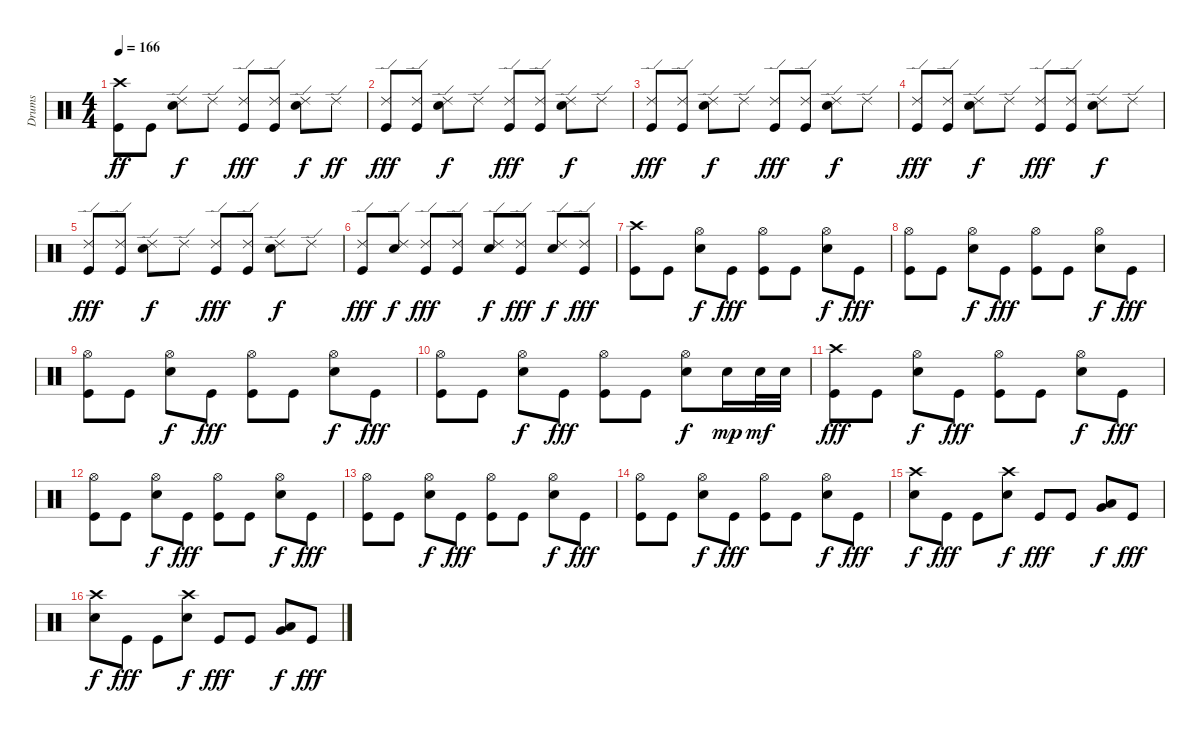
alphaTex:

\track ("Drums" "Drums") {instrument percussion}
\staff {score}
\articulation defaults
\ts (4 4)
\tempo 166
\clef neutral
\ks c
("Crash high (hit)" "Kick (hit)").8{dy ff} "Kick (hit)".8 ("Ride (edge) 2" "Snare (hit) 2").8{dy f} "Ride (edge) 2".8 ("Ride (edge) 2" "Kick (hit)").8{dy fff} ("Ride (edge) 2" "Kick (hit)").8 ("Ride (edge) 2" "Snare (hit) 2").8{dy f} "Ride (edge) 2".8{dy ff} |
("Ride (edge) 2" "Kick (hit)").8{dy fff} ("Ride (edge) 2" "Kick (hit)").8 ("Ride (edge) 2" "Snare (hit) 2").8{dy f} "Ride (edge) 2".8 ("Ride (edge) 2" "Kick (hit)").8{dy fff} ("Ride (edge) 2" "Kick (hit)").8 ("Ride (edge) 2" "Snare (hit) 2").8{dy f} "Ride (edge) 2".8 |
("Ride (edge) 2" "Kick (hit)").8{dy fff} ("Ride (edge) 2" "Kick (hit)").8 ("Ride (edge) 2" "Snare (hit) 2").8{dy f} "Ride (edge) 2".8 ("Ride (edge) 2" "Kick (hit)").8{dy fff} ("Ride (edge) 2" "Kick (hit)").8 ("Ride (edge) 2" "Snare (hit) 2").8{dy f} "Ride (edge) 2".8 |
("Ride (edge) 2" "Kick (hit)").8{dy fff} ("Ride (edge) 2" "Kick (hit)").8 ("Ride (edge) 2" "Snare (hit) 2").8{dy f} "Ride (edge) 2".8 ("Ride (edge) 2" "Kick (hit)").8{dy fff} ("Ride (edge) 2" "Kick (hit)").8 ("Ride (edge) 2" "Snare (hit) 2").8{dy f} "Ride (edge) 2".8 |
("Ride (edge) 2" "Kick (hit)").8{dy fff} ("Ride (edge) 2" "Kick (hit)").8 ("Ride (edge) 2" "Snare (hit) 2").8{dy f} "Ride (edge) 2".8 ("Ride (edge) 2" "Kick (hit)").8{dy fff} ("Ride (edge) 2" "Kick (hit)").8 ("Ride (edge) 2" "Snare (hit) 2").8{dy f} "Ride (edge) 2".8 |
("Ride (edge) 2" "Kick (hit)").8{dy fff} ("Ride (edge) 2" "Snare (hit) 2").8{dy f} ("Ride (edge) 2" "Kick (hit)").8{dy fff} ("Ride (edge) 2" "Kick (hit)").8 ("Ride (edge) 2" "Snare (hit) 2").8{dy f} ("Ride (edge) 2" "Kick (hit)").8{dy fff} ("Ride (edge) 2" "Snare (hit) 2").8{dy f} ("Ride (edge) 2" "Kick (hit)").8{dy fff} |
("Crash high (hit)" "Kick (hit)").8 "Kick (hit)".8 ("Hi-Hat (open)" "Snare (hit) 2").8{dy f} "Kick (hit)".8{dy fff} ("Hi-Hat (open)" "Kick (hit)").8 "Kick (hit)".8 ("Hi-Hat (open)" "Snare (hit) 2").8{dy f} "Kick (hit)".8{dy fff} |
("Hi-Hat (open)" "Kick (hit)").8 "Kick (hit)".8 ("Hi-Hat (open)" "Snare (hit) 2").8{dy f} "Kick (hit)".8{dy fff} ("Hi-Hat (open)" "Kick (hit)").8 "Kick (hit)".8 ("Hi-Hat (open)" "Snare (hit) 2").8{dy f} "Kick (hit)".8{dy fff} |
("Hi-Hat (open)" "Kick (hit)").8 "Kick (hit)".8 ("Hi-Hat (open)" "Snare (hit) 2").8{dy f} "Kick (hit)".8{dy fff} ("Hi-Hat (open)" "Kick (hit)").8 "Kick (hit)".8 ("Hi-Hat (open)" "Snare (hit) 2").8{dy f} "Kick (hit)".8{dy fff} |
("Hi-Hat (open)" "Kick (hit)").8 "Kick (hit)".8 ("Hi-Hat (open)" "Snare (hit) 2").8{dy f} "Kick (hit)".8{dy fff} ("Hi-Hat (open)" "Kick (hit)").8 "Kick (hit)".8 ("Hi-Hat (open)" "Snare (hit) 2").8{dy f} "Snare (hit) 2".16{dy mp} "Snare (hit) 2".32{dy mf} "Snare (hit) 2".32 |
("Crash high (hit)" "Kick (hit)").8{dy fff} "Kick (hit)".8 ("Hi-Hat (open)" "Snare (hit) 2").8{dy f} "Kick (hit)".8{dy fff} ("Hi-Hat (open)" "Kick (hit)").8 "Kick (hit)".8 ("Hi-Hat (open)" "Snare (hit) 2").8{dy f} "Kick (hit)".8{dy fff} |
("Hi-Hat (open)" "Kick (hit)").8 "Kick (hit)".8 ("Hi-Hat (open)" "Snare (hit) 2").8{dy f} "Kick (hit)".8{dy fff} ("Hi-Hat (open)" "Kick (hit)").8 "Kick (hit)".8 ("Hi-Hat (open)" "Snare (hit) 2").8{dy f} "Kick (hit)".8{dy fff} |
("Hi-Hat (open)" "Kick (hit)").8 "Kick (hit)".8 ("Hi-Hat (open)" "Snare (hit) 2").8{dy f} "Kick (hit)".8{dy fff} ("Hi-Hat (open)" "Kick (hit)").8 "Kick (hit)".8 ("Hi-Hat (open)" "Snare (hit) 2").8{dy f} "Kick (hit)".8{dy fff} |
("Hi-Hat (open)" "Kick (hit)").8 "Kick (hit)".8 ("Hi-Hat (open)" "Snare (hit) 2").8{dy f} "Kick (hit)".8{dy fff} ("Hi-Hat (open)" "Kick (hit)").8 "Kick (hit)".8 ("Hi-Hat (open)" "Snare (hit) 2").8{dy f} "Kick (hit)".8{dy fff} |
("Crash high (hit)" "Snare (hit) 2").8{dy f} "Kick (hit)".8{dy fff} "Kick (hit)".8 ("Crash high (hit)" "Snare (hit) 2").8{dy f} "Kick (hit)".8{dy fff} "Kick (hit)".8 ("Very Low Tom (hit)" "Low Floor Tom (hit)").8{dy f} "Kick (hit)".8{dy fff} |
("Crash high (hit)" "Snare (hit) 2").8{dy f} "Kick (hit)".8{dy fff} "Kick (hit)".8 ("Crash high (hit)" "Snare (hit) 2").8{dy f} "Kick (hit)".8{dy fff} "Kick (hit)".8 ("Very Low Tom (hit)" "Low Floor Tom (hit)").8{dy f} "Kick (hit)".8{dy fff}
